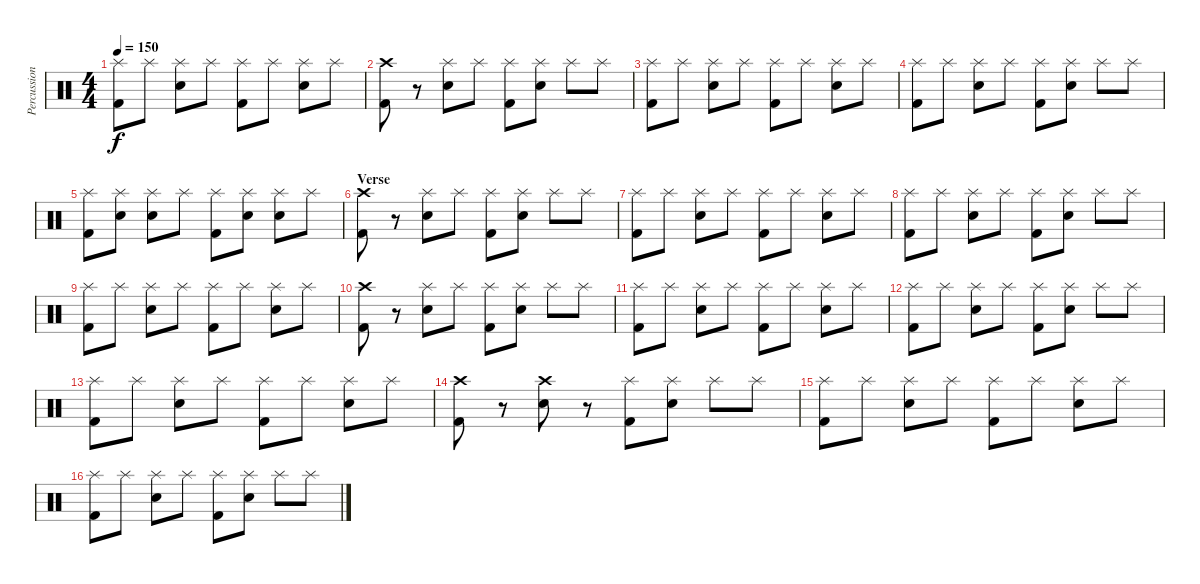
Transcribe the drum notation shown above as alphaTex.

\track ("Percussion" "Percussion") {instrument percussion}
\staff {score}
\articulation defaults
\ts (4 4)
\tempo 150
\clef neutral
\ks c
("Splash (hit)" "Kick (hit) 2").8{dy f} "Splash (hit)".8 ("Splash (hit)" "Electric Snare (hit)").8 "Splash (hit)".8 ("Splash (hit)" "Kick (hit) 2").8 "Splash (hit)".8 ("Splash (hit)" "Electric Snare (hit)").8 "Splash (hit)".8 |
("Crash high (hit)" "Kick (hit) 2").8 r.8 ("Splash (hit)" "Electric Snare (hit)").8 "Splash (hit)".8 ("Splash (hit)" "Kick (hit) 2").8 ("Splash (hit)" "Electric Snare (hit)").8 "Splash (hit)".8 "Splash (hit)".8 |
("Splash (hit)" "Kick (hit) 2").8 "Splash (hit)".8 ("Splash (hit)" "Electric Snare (hit)").8 "Splash (hit)".8 ("Splash (hit)" "Kick (hit) 2").8 "Splash (hit)".8 ("Splash (hit)" "Electric Snare (hit)").8 "Splash (hit)".8 |
("Splash (hit)" "Kick (hit) 2").8 "Splash (hit)".8 ("Splash (hit)" "Electric Snare (hit)").8 "Splash (hit)".8 ("Splash (hit)" "Kick (hit) 2").8 ("Splash (hit)" "Electric Snare (hit)").8 "Splash (hit)".8 "Splash (hit)".8 |
("Splash (hit)" "Kick (hit) 2").8 ("Splash (hit)" "Electric Snare (hit)").8 ("Splash (hit)" "Electric Snare (hit)").8 "Splash (hit)".8 ("Splash (hit)" "Kick (hit) 2").8 ("Splash (hit)" "Electric Snare (hit)").8 ("Splash (hit)" "Electric Snare (hit)").8 "Splash (hit)".8 |
\section ("" "Verse")
("Crash high (hit)" "Kick (hit) 2").8 r.8 ("Splash (hit)" "Electric Snare (hit)").8 "Splash (hit)".8 ("Splash (hit)" "Kick (hit) 2").8 ("Splash (hit)" "Electric Snare (hit)").8 "Splash (hit)".8 "Splash (hit)".8 |
("Splash (hit)" "Kick (hit) 2").8 "Splash (hit)".8 ("Splash (hit)" "Electric Snare (hit)").8 "Splash (hit)".8 ("Splash (hit)" "Kick (hit) 2").8 "Splash (hit)".8 ("Splash (hit)" "Electric Snare (hit)").8 "Splash (hit)".8 |
("Splash (hit)" "Kick (hit) 2").8 "Splash (hit)".8 ("Splash (hit)" "Electric Snare (hit)").8 "Splash (hit)".8 ("Splash (hit)" "Kick (hit) 2").8 ("Splash (hit)" "Electric Snare (hit)").8 "Splash (hit)".8 "Splash (hit)".8 |
("Splash (hit)" "Kick (hit) 2").8 "Splash (hit)".8 ("Splash (hit)" "Electric Snare (hit)").8 "Splash (hit)".8 ("Splash (hit)" "Kick (hit) 2").8 "Splash (hit)".8 ("Splash (hit)" "Electric Snare (hit)").8 "Splash (hit)".8 |
("Crash high (hit)" "Kick (hit) 2").8 r.8 ("Splash (hit)" "Electric Snare (hit)").8 "Splash (hit)".8 ("Splash (hit)" "Kick (hit) 2").8 ("Splash (hit)" "Electric Snare (hit)").8 "Splash (hit)".8 "Splash (hit)".8 |
("Splash (hit)" "Kick (hit) 2").8 "Splash (hit)".8 ("Splash (hit)" "Electric Snare (hit)").8 "Splash (hit)".8 ("Splash (hit)" "Kick (hit) 2").8 "Splash (hit)".8 ("Splash (hit)" "Electric Snare (hit)").8 "Splash (hit)".8 |
("Splash (hit)" "Kick (hit) 2").8 "Splash (hit)".8 ("Splash (hit)" "Electric Snare (hit)").8 "Splash (hit)".8 ("Splash (hit)" "Kick (hit) 2").8 ("Splash (hit)" "Electric Snare (hit)").8 "Splash (hit)".8 "Splash (hit)".8 |
("Splash (hit)" "Kick (hit) 2").8 "Splash (hit)".8 ("Splash (hit)" "Electric Snare (hit)").8 "Splash (hit)".8 ("Splash (hit)" "Kick (hit) 2").8 "Splash (hit)".8 ("Splash (hit)" "Electric Snare (hit)").8 "Splash (hit)".8 |
("Crash high (hit)" "Kick (hit) 2").8 r.8 ("Crash high (hit)" "Electric Snare (hit)").8 r.8 ("Splash (hit)" "Kick (hit) 2").8 ("Splash (hit)" "Electric Snare (hit)").8 "Splash (hit)".8 "Splash (hit)".8 |
("Splash (hit)" "Kick (hit) 2").8 "Splash (hit)".8 ("Splash (hit)" "Electric Snare (hit)").8 "Splash (hit)".8 ("Splash (hit)" "Kick (hit) 2").8 "Splash (hit)".8 ("Splash (hit)" "Electric Snare (hit)").8 "Splash (hit)".8 |
("Splash (hit)" "Kick (hit) 2").8 "Splash (hit)".8 ("Splash (hit)" "Electric Snare (hit)").8 "Splash (hit)".8 ("Splash (hit)" "Kick (hit) 2").8 ("Splash (hit)" "Electric Snare (hit)").8 "Splash (hit)".8 "Splash (hit)".8
